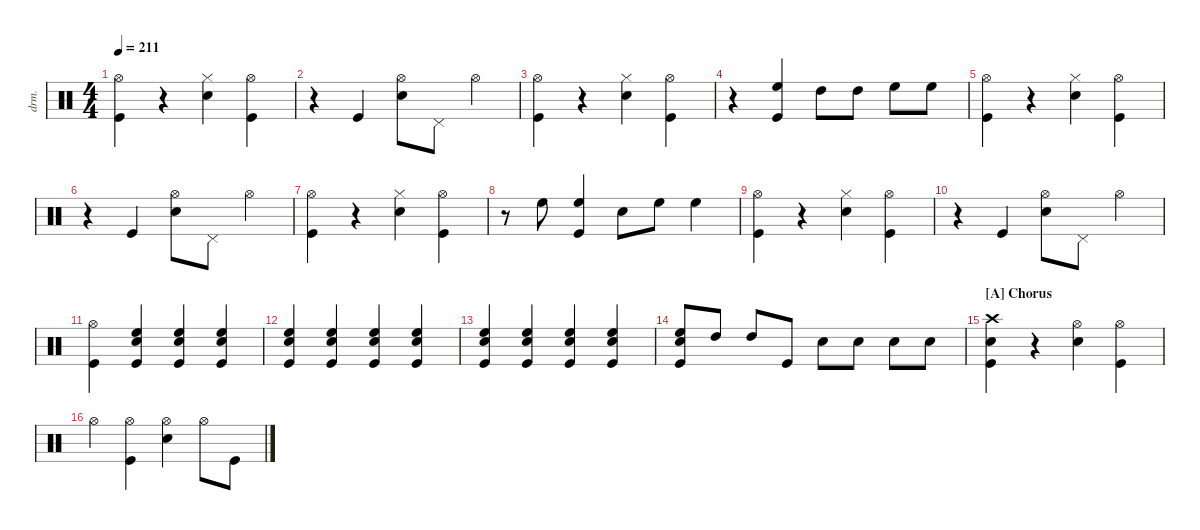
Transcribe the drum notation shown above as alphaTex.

\defaultSystemsLayout 4
\hideDynamics
\bracketExtendMode nobrackets
\track ("Drums" "drm.") {instrument percussion}
\staff {score}
\articulation defaults
\ts (4 4)
\tempo 211
\clef neutral
\ks c
("Kick (hit)" "Hi-Hat (open)"{acc #}).4{dy fff} r.4 ("Snare (hit) 2" "Hi-Hat (closed)"{acc #}).4{dy ff} ("Kick (hit)" "Hi-Hat (open)"{acc #}).4{dy f} |
r.4 "Kick (hit)".4{dy fff} ("Snare (hit) 2" "Hi-Hat (open)"{acc #}).8{dy ff} "Pedal Hi-Hat (hit)"{acc #}.8 "Hi-Hat (open)"{acc #}.4{dy fff} |
("Kick (hit)" "Hi-Hat (open)"{acc #}).4 r.4 ("Snare (hit) 2" "Hi-Hat (closed)"{acc #}).4{dy ff} ("Kick (hit)" "Hi-Hat (open)"{acc #}).4{dy f} |
r.4 ("Kick (hit)" "High Floor Tom (hit)").4{dy fff} "High Tom (hit)".8{dy ff} "High Tom (hit)".8{dy mf} "High Floor Tom (hit)".8{dy ff} "High Floor Tom (hit)".8{dy f} |
("Kick (hit)" "Hi-Hat (open)"{acc #}).4{dy fff} r.4 ("Snare (hit) 2" "Hi-Hat (closed)"{acc #}).4{dy ff} ("Kick (hit)" "Hi-Hat (open)"{acc #}).4{dy f} |
r.4 "Kick (hit)".4{dy fff} ("Snare (hit) 2" "Hi-Hat (open)"{acc #}).8{dy ff} "Pedal Hi-Hat (hit)"{acc #}.8 "Hi-Hat (open)"{acc #}.4{dy fff} |
("Kick (hit)" "Hi-Hat (open)"{acc #}).4 r.4 ("Snare (hit) 2" "Hi-Hat (closed)"{acc #}).4{dy ff} ("Kick (hit)" "Hi-Hat (open)"{acc #}).4{dy f} |
r.8 "High Floor Tom (hit)".8{dy mp} ("Kick (hit)" "High Floor Tom (hit)").4{dy fff} "Snare (hit) 2".8{dy ff} "High Floor Tom (hit)".8{dy p} "High Floor Tom (hit)".4{dy ff} |
("Kick (hit)" "Hi-Hat (open)"{acc #}).4{dy fff} r.4 ("Snare (hit) 2" "Hi-Hat (closed)"{acc #}).4{dy ff} ("Kick (hit)" "Hi-Hat (open)"{acc #}).4{dy f} |
r.4 "Kick (hit)".4{dy fff} ("Snare (hit) 2" "Hi-Hat (open)"{acc #}).8{dy ff} "Pedal Hi-Hat (hit)"{acc #}.8 "Hi-Hat (open)"{acc #}.4{dy fff} |
("Kick (hit)" "Hi-Hat (open)"{acc #}).4 ("Kick (hit)" "Snare (hit) 2" "High Floor Tom (hit)").4{dy ff} ("Kick (hit)" "Snare (hit) 2" "High Floor Tom (hit)").4 ("Kick (hit)" "Snare (hit) 2" "High Floor Tom (hit)").4 |
("Snare (hit) 2" "Kick (hit)" "High Floor Tom (hit)").4 ("Kick (hit)" "Snare (hit) 2" "High Floor Tom (hit)").4 ("Snare (hit) 2" "Kick (hit)" "High Floor Tom (hit)").4 ("Snare (hit) 2" "Kick (hit)" "High Floor Tom (hit)").4 |
("Kick (hit)" "Snare (hit) 2" "High Floor Tom (hit)").4 ("Kick (hit)" "Snare (hit) 2" "High Floor Tom (hit)").4 ("Snare (hit) 2" "Kick (hit)" "High Floor Tom (hit)").4 ("Kick (hit)" "Snare (hit) 2" "High Floor Tom (hit)").4 |
("Kick (hit)" "Snare (hit) 2" "High Floor Tom (hit)").8 "High Tom (hit)".8{dy f} "High Tom (hit)".8{dy mp} "Kick (hit)".8{dy ff} "Snare (hit) 2".8{dy fff} "Snare (hit) 2".8{dy f} "Snare (hit) 2".8{dy fff} "Snare (hit) 2".8{dy f} |
\section ("A" "Chorus")
("Kick (hit)" "Snare (hit) 2" "Crash high (hit)"{acc #}).4{dy fff} r.4 ("Snare (hit) 2" "Hi-Hat (open)"{acc #}).4{dy ff} ("Kick (hit)" "Hi-Hat (open)"{acc #}).4 |
"Hi-Hat (open)"{acc #}.4{dy fff} ("Kick (hit)" "Hi-Hat (open)"{acc #}).4{dy ff} ("Snare (hit) 2" "Hi-Hat (open)"{acc #}).4 "Hi-Hat (open)"{acc #}.8{dy mf} "Kick (hit)".8
